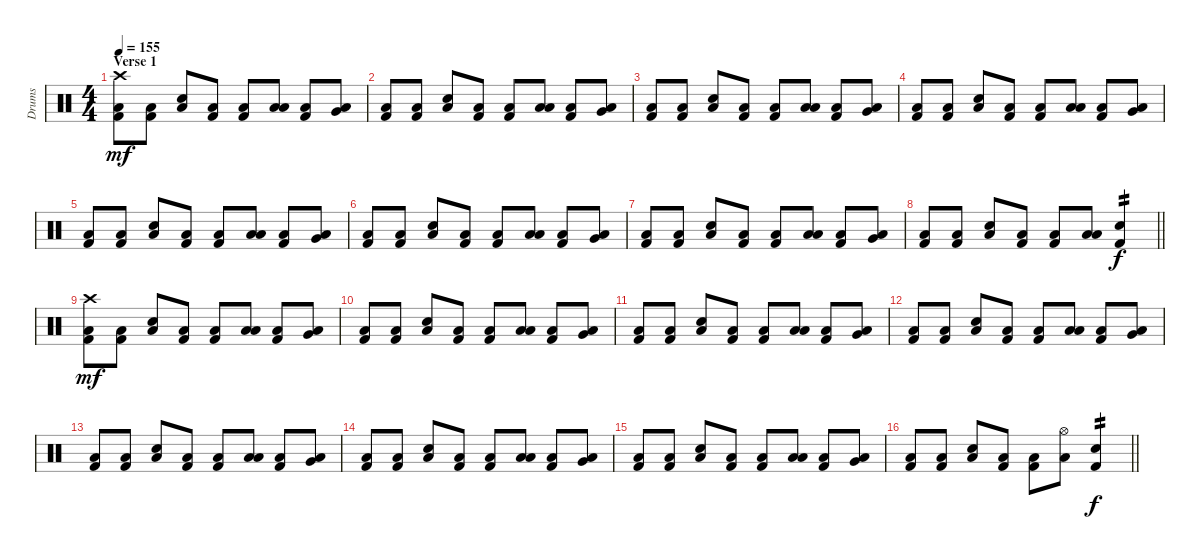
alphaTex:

\track ("Drums" "Drums") {instrument percussion}
\staff {score}
\articulation defaults
\ts (4 4)
\section ("" "Verse 1")
\tempo 155
\clef neutral
\ks c
("Crash high (hit)" "Low Floor Tom (hit)" "Kick (hit) 2").8{dy mf} ("Low Floor Tom (hit)" "Kick (hit) 2").8 ("Snare (hit) 2" "Low Floor Tom (hit)").8 ("Low Floor Tom (hit)" "Kick (hit) 2").8 ("Low Floor Tom (hit)" "Kick (hit) 2").8 ("Low Tom (hit)" "Low Floor Tom (hit)").8 ("Low Floor Tom (hit)" "Kick (hit) 2").8 ("Very Low Tom (hit)" "Low Floor Tom (hit)").8 |
("Low Floor Tom (hit)" "Kick (hit) 2").8 ("Low Floor Tom (hit)" "Kick (hit) 2").8 ("Snare (hit) 2" "Low Floor Tom (hit)").8 ("Low Floor Tom (hit)" "Kick (hit) 2").8 ("Low Floor Tom (hit)" "Kick (hit) 2").8 ("Low Tom (hit)" "Low Floor Tom (hit)").8 ("Low Floor Tom (hit)" "Kick (hit) 2").8 ("Very Low Tom (hit)" "Low Floor Tom (hit)").8 |
("Low Floor Tom (hit)" "Kick (hit) 2").8 ("Low Floor Tom (hit)" "Kick (hit) 2").8 ("Snare (hit) 2" "Low Floor Tom (hit)").8 ("Low Floor Tom (hit)" "Kick (hit) 2").8 ("Low Floor Tom (hit)" "Kick (hit) 2").8 ("Low Tom (hit)" "Low Floor Tom (hit)").8 ("Low Floor Tom (hit)" "Kick (hit) 2").8 ("Very Low Tom (hit)" "Low Floor Tom (hit)").8 |
("Low Floor Tom (hit)" "Kick (hit) 2").8 ("Low Floor Tom (hit)" "Kick (hit) 2").8 ("Snare (hit) 2" "Low Floor Tom (hit)").8 ("Low Floor Tom (hit)" "Kick (hit) 2").8 ("Low Floor Tom (hit)" "Kick (hit) 2").8 ("Low Tom (hit)" "Low Floor Tom (hit)").8 ("Low Floor Tom (hit)" "Kick (hit) 2").8 ("Very Low Tom (hit)" "Low Floor Tom (hit)").8 |
("Low Floor Tom (hit)" "Kick (hit) 2").8 ("Low Floor Tom (hit)" "Kick (hit) 2").8 ("Snare (hit) 2" "Low Floor Tom (hit)").8 ("Low Floor Tom (hit)" "Kick (hit) 2").8 ("Low Floor Tom (hit)" "Kick (hit) 2").8 ("Low Tom (hit)" "Low Floor Tom (hit)").8 ("Low Floor Tom (hit)" "Kick (hit) 2").8 ("Very Low Tom (hit)" "Low Floor Tom (hit)").8 |
("Low Floor Tom (hit)" "Kick (hit) 2").8 ("Low Floor Tom (hit)" "Kick (hit) 2").8 ("Snare (hit) 2" "Low Floor Tom (hit)").8 ("Low Floor Tom (hit)" "Kick (hit) 2").8 ("Low Floor Tom (hit)" "Kick (hit) 2").8 ("Low Tom (hit)" "Low Floor Tom (hit)").8 ("Low Floor Tom (hit)" "Kick (hit) 2").8 ("Very Low Tom (hit)" "Low Floor Tom (hit)").8 |
("Low Floor Tom (hit)" "Kick (hit) 2").8 ("Low Floor Tom (hit)" "Kick (hit) 2").8 ("Snare (hit) 2" "Low Floor Tom (hit)").8 ("Low Floor Tom (hit)" "Kick (hit) 2").8 ("Low Floor Tom (hit)" "Kick (hit) 2").8 ("Low Tom (hit)" "Low Floor Tom (hit)").8 ("Low Floor Tom (hit)" "Kick (hit) 2").8 ("Very Low Tom (hit)" "Low Floor Tom (hit)").8 |
\barLineRight lightlight
("Low Floor Tom (hit)" "Kick (hit) 2").8 ("Low Floor Tom (hit)" "Kick (hit) 2").8 ("Snare (hit) 2" "Low Floor Tom (hit)").8 ("Low Floor Tom (hit)" "Kick (hit) 2").8 ("Low Floor Tom (hit)" "Kick (hit) 2").8 ("Low Tom (hit)" "Low Floor Tom (hit)").8 ("Snare (hit) 2" "Kick (hit) 2").4{tp 2 dy f} |
("Crash high (hit)" "Low Floor Tom (hit)" "Kick (hit) 2").8{dy mf} ("Low Floor Tom (hit)" "Kick (hit) 2").8 ("Snare (hit) 2" "Low Floor Tom (hit)").8 ("Low Floor Tom (hit)" "Kick (hit) 2").8 ("Low Floor Tom (hit)" "Kick (hit) 2").8 ("Low Tom (hit)" "Low Floor Tom (hit)").8 ("Low Floor Tom (hit)" "Kick (hit) 2").8 ("Very Low Tom (hit)" "Low Floor Tom (hit)").8 |
("Low Floor Tom (hit)" "Kick (hit) 2").8 ("Low Floor Tom (hit)" "Kick (hit) 2").8 ("Snare (hit) 2" "Low Floor Tom (hit)").8 ("Low Floor Tom (hit)" "Kick (hit) 2").8 ("Low Floor Tom (hit)" "Kick (hit) 2").8 ("Low Tom (hit)" "Low Floor Tom (hit)").8 ("Low Floor Tom (hit)" "Kick (hit) 2").8 ("Very Low Tom (hit)" "Low Floor Tom (hit)").8 |
("Low Floor Tom (hit)" "Kick (hit) 2").8 ("Low Floor Tom (hit)" "Kick (hit) 2").8 ("Snare (hit) 2" "Low Floor Tom (hit)").8 ("Low Floor Tom (hit)" "Kick (hit) 2").8 ("Low Floor Tom (hit)" "Kick (hit) 2").8 ("Low Tom (hit)" "Low Floor Tom (hit)").8 ("Low Floor Tom (hit)" "Kick (hit) 2").8 ("Very Low Tom (hit)" "Low Floor Tom (hit)").8 |
("Low Floor Tom (hit)" "Kick (hit) 2").8 ("Low Floor Tom (hit)" "Kick (hit) 2").8 ("Snare (hit) 2" "Low Floor Tom (hit)").8 ("Low Floor Tom (hit)" "Kick (hit) 2").8 ("Low Floor Tom (hit)" "Kick (hit) 2").8 ("Low Tom (hit)" "Low Floor Tom (hit)").8 ("Low Floor Tom (hit)" "Kick (hit) 2").8 ("Very Low Tom (hit)" "Low Floor Tom (hit)").8 |
("Low Floor Tom (hit)" "Kick (hit) 2").8 ("Low Floor Tom (hit)" "Kick (hit) 2").8 ("Snare (hit) 2" "Low Floor Tom (hit)").8 ("Low Floor Tom (hit)" "Kick (hit) 2").8 ("Low Floor Tom (hit)" "Kick (hit) 2").8 ("Low Tom (hit)" "Low Floor Tom (hit)").8 ("Low Floor Tom (hit)" "Kick (hit) 2").8 ("Very Low Tom (hit)" "Low Floor Tom (hit)").8 |
("Low Floor Tom (hit)" "Kick (hit) 2").8 ("Low Floor Tom (hit)" "Kick (hit) 2").8 ("Snare (hit) 2" "Low Floor Tom (hit)").8 ("Low Floor Tom (hit)" "Kick (hit) 2").8 ("Low Floor Tom (hit)" "Kick (hit) 2").8 ("Low Tom (hit)" "Low Floor Tom (hit)").8 ("Low Floor Tom (hit)" "Kick (hit) 2").8 ("Very Low Tom (hit)" "Low Floor Tom (hit)").8 |
("Low Floor Tom (hit)" "Kick (hit) 2").8 ("Low Floor Tom (hit)" "Kick (hit) 2").8 ("Snare (hit) 2" "Low Floor Tom (hit)").8 ("Low Floor Tom (hit)" "Kick (hit) 2").8 ("Low Floor Tom (hit)" "Kick (hit) 2").8 ("Low Tom (hit)" "Low Floor Tom (hit)").8 ("Low Floor Tom (hit)" "Kick (hit) 2").8 ("Very Low Tom (hit)" "Low Floor Tom (hit)").8 |
\barLineRight lightlight
("Low Floor Tom (hit)" "Kick (hit) 2").8 ("Low Floor Tom (hit)" "Kick (hit) 2").8 ("Snare (hit) 2" "Low Floor Tom (hit)").8 ("Low Floor Tom (hit)" "Kick (hit) 2").8 ("Low Floor Tom (hit)" "Kick (hit) 2").8 ("Hi-Hat (open)" "Low Floor Tom (hit)").8 ("Snare (hit) 2" "Kick (hit) 2").4{tp 2 dy f}
